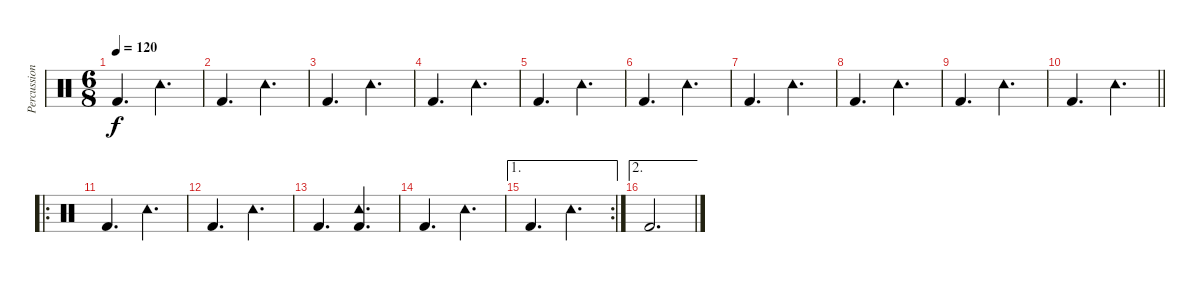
\track ("Percussion" "Percussion") {instrument percussion}
\staff {score}
\articulation defaults
\ts (6 8)
\tempo 120
\clef neutral
\ks c "Kick (hit) 2".4{d dy f} "Tambourine (hit)".4{d}
|
"Kick (hit) 2".4{d} "Tambourine (hit)".4{d} |
"Kick (hit) 2".4{d} "Tambourine (hit)".4{d} |
"Kick (hit) 2".4{d} "Tambourine (hit)".4{d} |
"Kick (hit) 2".4{d} "Tambourine (hit)".4{d} |
"Kick (hit) 2".4{d} "Tambourine (hit)".4{d} |
"Kick (hit) 2".4{d} "Tambourine (hit)".4{d} |
"Kick (hit) 2".4{d} "Tambourine (hit)".4{d} |
"Kick (hit) 2".4{d} "Tambourine (hit)".4{d} |
\barLineRight lightlight "Kick (hit) 2".4{d} "Tambourine (hit)".4{d}
|
\ro "Kick (hit) 2".4{d} "Tambourine (hit)".4{d}
|
"Kick (hit) 2".4{d} "Tambourine (hit)".4{d} |
"Kick (hit) 2".4{d} ("Tambourine (hit)" "Kick (hit) 2").4{d} |
"Kick (hit) 2".4{d} "Tambourine (hit)".4{d} |
\ae 1
\rc 2 "Kick (hit) 2".4{d} "Tambourine (hit)".4{d}
|
\ae 2 "Kick (hit) 2".2{d}
